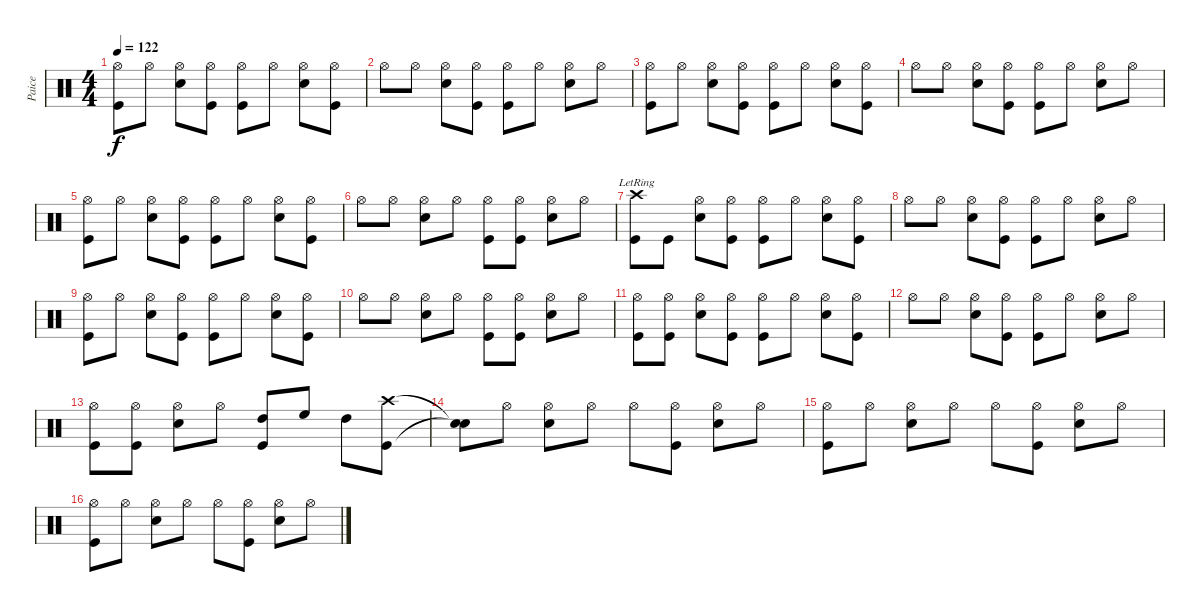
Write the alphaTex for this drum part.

\track ("Paice" "Paice") {instrument percussion}
\staff {score}
\articulation defaults
\ts (4 4)
\tempo 122
\clef neutral
\ks c
("Hi-Hat (open)" "Kick (hit)").8{dy f} "Hi-Hat (open)".8 ("Hi-Hat (open)" "Snare (hit) 2").8 ("Hi-Hat (open)" "Kick (hit)").8 ("Hi-Hat (open)" "Kick (hit)").8 "Hi-Hat (open)".8 ("Hi-Hat (open)" "Snare (hit) 2").8 ("Hi-Hat (open)" "Kick (hit)").8 |
"Hi-Hat (open)".8 "Hi-Hat (open)".8 ("Hi-Hat (open)" "Snare (hit) 2").8 ("Hi-Hat (open)" "Kick (hit)").8 ("Hi-Hat (open)" "Kick (hit)").8 "Hi-Hat (open)".8 ("Hi-Hat (open)" "Snare (hit) 2").8 "Hi-Hat (open)".8 |
("Hi-Hat (open)" "Kick (hit)").8 "Hi-Hat (open)".8 ("Hi-Hat (open)" "Snare (hit) 2").8 ("Hi-Hat (open)" "Kick (hit)").8 ("Hi-Hat (open)" "Kick (hit)").8 "Hi-Hat (open)".8 ("Hi-Hat (open)" "Snare (hit) 2").8 ("Hi-Hat (open)" "Kick (hit)").8 |
"Hi-Hat (open)".8 "Hi-Hat (open)".8 ("Hi-Hat (open)" "Snare (hit) 2").8 ("Hi-Hat (open)" "Kick (hit)").8 ("Hi-Hat (open)" "Kick (hit)").8 "Hi-Hat (open)".8 ("Hi-Hat (open)" "Snare (hit) 2").8 "Hi-Hat (open)".8 |
("Hi-Hat (open)" "Kick (hit)").8 "Hi-Hat (open)".8 ("Hi-Hat (open)" "Snare (hit) 2").8 ("Hi-Hat (open)" "Kick (hit)").8 ("Hi-Hat (open)" "Kick (hit)").8 "Hi-Hat (open)".8 ("Hi-Hat (open)" "Snare (hit) 2").8 ("Hi-Hat (open)" "Kick (hit)").8 |
"Hi-Hat (open)".8 "Hi-Hat (open)".8 ("Hi-Hat (open)" "Snare (hit) 2").8 "Hi-Hat (open)".8 ("Hi-Hat (open)" "Kick (hit)").8 ("Hi-Hat (open)" "Kick (hit)").8 ("Hi-Hat (open)" "Snare (hit) 2").8 "Hi-Hat (open)".8 |
("Crash high (hit)"{lr} "Kick (hit)").8 "Kick (hit)".8 ("Hi-Hat (open)" "Snare (hit) 2").8 ("Hi-Hat (open)" "Kick (hit)").8 ("Hi-Hat (open)" "Kick (hit)").8 "Hi-Hat (open)".8 ("Hi-Hat (open)" "Snare (hit) 2").8 ("Hi-Hat (open)" "Kick (hit)").8 |
"Hi-Hat (open)".8 "Hi-Hat (open)".8 ("Hi-Hat (open)" "Snare (hit) 2").8 ("Hi-Hat (open)" "Kick (hit)").8 ("Hi-Hat (open)" "Kick (hit)").8 "Hi-Hat (open)".8 ("Hi-Hat (open)" "Snare (hit) 2").8 "Hi-Hat (open)".8 |
("Hi-Hat (open)" "Kick (hit)").8 "Hi-Hat (open)".8 ("Hi-Hat (open)" "Snare (hit) 2").8 ("Hi-Hat (open)" "Kick (hit)").8 ("Hi-Hat (open)" "Kick (hit)").8 "Hi-Hat (open)".8 ("Hi-Hat (open)" "Snare (hit) 2").8 ("Hi-Hat (open)" "Kick (hit)").8 |
"Hi-Hat (open)".8 "Hi-Hat (open)".8 ("Hi-Hat (open)" "Snare (hit) 2").8 "Hi-Hat (open)".8 ("Hi-Hat (open)" "Kick (hit)").8 ("Hi-Hat (open)" "Kick (hit)").8 ("Hi-Hat (open)" "Snare (hit) 2").8 "Hi-Hat (open)".8 |
("Hi-Hat (open)" "Kick (hit)").8 ("Hi-Hat (open)" "Kick (hit)").8 ("Hi-Hat (open)" "Snare (hit) 2").8 ("Hi-Hat (open)" "Kick (hit)").8 ("Hi-Hat (open)" "Kick (hit)").8 "Hi-Hat (open)".8 ("Hi-Hat (open)" "Snare (hit) 2").8 ("Hi-Hat (open)" "Kick (hit)").8 |
"Hi-Hat (open)".8 "Hi-Hat (open)".8 ("Hi-Hat (open)" "Snare (hit) 2").8 ("Hi-Hat (open)" "Kick (hit)").8 ("Hi-Hat (open)" "Kick (hit)").8 "Hi-Hat (open)".8 ("Hi-Hat (open)" "Snare (hit) 2").8 "Hi-Hat (open)".8 |
("Hi-Hat (open)" "Kick (hit)").8 ("Hi-Hat (open)" "Kick (hit)").8 ("Hi-Hat (open)" "Snare (hit) 2").8 "Hi-Hat (open)".8 ("High Tom (hit)" "Kick (hit)").8 "High Floor Tom (hit)".8 "High Tom (hit)".8 ("Crash high (hit)" "Kick (hit)").8 |
("Snare (hit)"{t} "Snare (hit)"{t}).8 "Hi-Hat (open)".8 ("Hi-Hat (open)" "Snare (hit) 2").8 "Hi-Hat (open)".8 "Hi-Hat (open)".8 ("Hi-Hat (open)" "Kick (hit)").8 ("Hi-Hat (open)" "Snare (hit) 2").8 "Hi-Hat (open)".8 |
("Hi-Hat (open)" "Kick (hit)").8 "Hi-Hat (open)".8 ("Hi-Hat (open)" "Snare (hit) 2").8 "Hi-Hat (open)".8 "Hi-Hat (open)".8 ("Hi-Hat (open)" "Kick (hit)").8 ("Hi-Hat (open)" "Snare (hit) 2").8 "Hi-Hat (open)".8 |
("Hi-Hat (open)" "Kick (hit)").8 "Hi-Hat (open)".8 ("Hi-Hat (open)" "Snare (hit) 2").8 "Hi-Hat (open)".8 "Hi-Hat (open)".8 ("Hi-Hat (open)" "Kick (hit)").8 ("Hi-Hat (open)" "Snare (hit) 2").8 "Hi-Hat (open)".8
